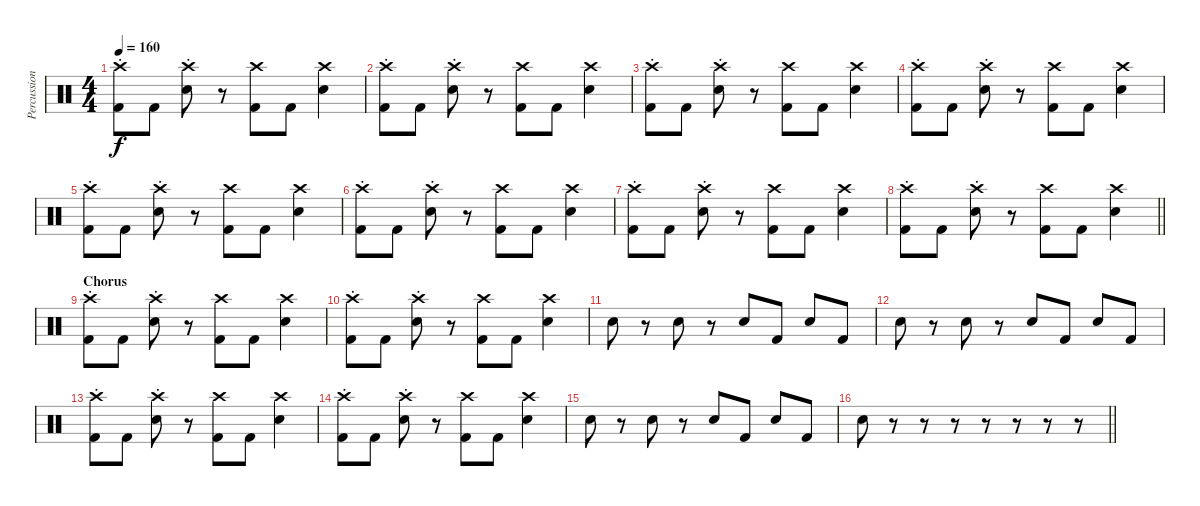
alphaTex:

\track ("Percussion" "Percussion") {instrument percussion}
\staff {score}
\articulation defaults
\ts (4 4)
\tempo 160
\clef neutral
\ks c
("Crash high (hit)"{st} "Kick (hit) 2").8{dy f} "Kick (hit) 2".8 ("Crash high (hit)"{st} "Snare (hit) 2").8 r.8 ("Crash high (hit)" "Kick (hit) 2").8 "Kick (hit) 2".8 ("Crash high (hit)" "Snare (hit) 2").4 |
("Crash high (hit)"{st} "Kick (hit) 2").8 "Kick (hit) 2".8 ("Crash high (hit)"{st} "Snare (hit) 2").8 r.8 ("Crash high (hit)" "Kick (hit) 2").8 "Kick (hit) 2".8 ("Crash high (hit)" "Snare (hit) 2").4 |
("Crash high (hit)"{st} "Kick (hit) 2").8 "Kick (hit) 2".8 ("Crash high (hit)"{st} "Snare (hit) 2").8 r.8 ("Crash high (hit)" "Kick (hit) 2").8 "Kick (hit) 2".8 ("Crash high (hit)" "Snare (hit) 2").4 |
("Crash high (hit)"{st} "Kick (hit) 2").8 "Kick (hit) 2".8 ("Crash high (hit)"{st} "Snare (hit) 2").8 r.8 ("Crash high (hit)" "Kick (hit) 2").8 "Kick (hit) 2".8 ("Crash high (hit)" "Snare (hit) 2").4 |
("Crash high (hit)"{st} "Kick (hit) 2").8 "Kick (hit) 2".8 ("Crash high (hit)"{st} "Snare (hit) 2").8 r.8 ("Crash high (hit)" "Kick (hit) 2").8 "Kick (hit) 2".8 ("Crash high (hit)" "Snare (hit) 2").4 |
("Crash high (hit)"{st} "Kick (hit) 2").8 "Kick (hit) 2".8 ("Crash high (hit)"{st} "Snare (hit) 2").8 r.8 ("Crash high (hit)" "Kick (hit) 2").8 "Kick (hit) 2".8 ("Crash high (hit)" "Snare (hit) 2").4 |
("Crash high (hit)"{st} "Kick (hit) 2").8 "Kick (hit) 2".8 ("Crash high (hit)"{st} "Snare (hit) 2").8 r.8 ("Crash high (hit)" "Kick (hit) 2").8 "Kick (hit) 2".8 ("Crash high (hit)" "Snare (hit) 2").4 |
\barLineRight lightlight
("Crash high (hit)"{st} "Kick (hit) 2").8 "Kick (hit) 2".8 ("Crash high (hit)"{st} "Snare (hit) 2").8 r.8 ("Crash high (hit)" "Kick (hit) 2").8 "Kick (hit) 2".8 ("Crash high (hit)" "Snare (hit) 2").4 |
\section ("" "Chorus")
("Crash high (hit)"{st} "Kick (hit) 2").8 "Kick (hit) 2".8 ("Crash high (hit)"{st} "Snare (hit) 2").8 r.8 ("Crash high (hit)" "Kick (hit) 2").8 "Kick (hit) 2".8 ("Crash high (hit)" "Snare (hit) 2").4 |
("Crash high (hit)"{st} "Kick (hit) 2").8 "Kick (hit) 2".8 ("Crash high (hit)"{st} "Snare (hit) 2").8 r.8 ("Crash high (hit)" "Kick (hit) 2").8 "Kick (hit) 2".8 ("Crash high (hit)" "Snare (hit) 2").4 |
"Snare (hit) 2".8 r.8 "Snare (hit) 2".8 r.8 "Snare (hit) 2".8 "Kick (hit) 2".8 "Snare (hit) 2".8 "Kick (hit) 2".8 |
"Snare (hit) 2".8 r.8 "Snare (hit) 2".8 r.8 "Snare (hit) 2".8 "Kick (hit) 2".8 "Snare (hit) 2".8 "Kick (hit) 2".8 |
("Crash high (hit)"{st} "Kick (hit) 2").8 "Kick (hit) 2".8 ("Crash high (hit)"{st} "Snare (hit) 2").8 r.8 ("Crash high (hit)" "Kick (hit) 2").8 "Kick (hit) 2".8 ("Crash high (hit)" "Snare (hit) 2").4 |
("Crash high (hit)"{st} "Kick (hit) 2").8 "Kick (hit) 2".8 ("Crash high (hit)"{st} "Snare (hit) 2").8 r.8 ("Crash high (hit)" "Kick (hit) 2").8 "Kick (hit) 2".8 ("Crash high (hit)" "Snare (hit) 2").4 |
"Snare (hit) 2".8 r.8 "Snare (hit) 2".8 r.8 "Snare (hit) 2".8 "Kick (hit) 2".8 "Snare (hit) 2".8 "Kick (hit) 2".8 |
\barLineRight lightlight "Snare (hit) 2".8
r.8 r.8 r.8 r.8 r.8 r.8 r.8
